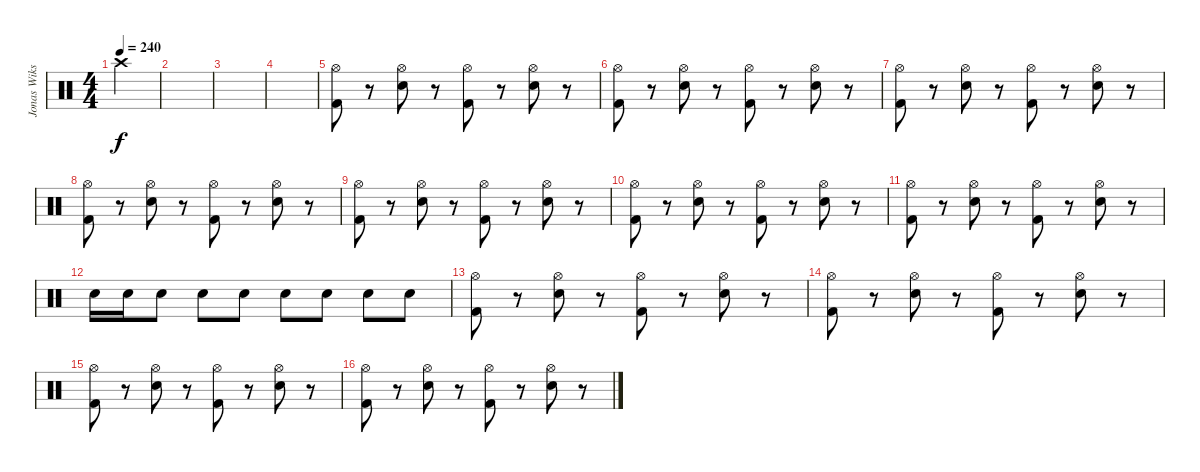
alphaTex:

\track ("Jonas Wikstrand" "Jonas Wiks") {instrument percussion}
\staff {score}
\articulation defaults
\ts (4 4)
\tempo 240
\clef neutral
\ks c "Crash high (hit)".4{dy f}
|
|
|
|
("Hi-Hat (open)" "Kick (hit) 2").8 r.8 ("Hi-Hat (open)" "Snare (hit) 2").8 r.8 ("Hi-Hat (open)" "Kick (hit) 2").8 r.8 ("Hi-Hat (open)" "Snare (hit) 2").8 r.8 |
("Hi-Hat (open)" "Kick (hit) 2").8 r.8 ("Hi-Hat (open)" "Snare (hit) 2").8 r.8 ("Hi-Hat (open)" "Kick (hit) 2").8 r.8 ("Hi-Hat (open)" "Snare (hit) 2").8 r.8 |
("Hi-Hat (open)" "Kick (hit) 2").8 r.8 ("Hi-Hat (open)" "Snare (hit) 2").8 r.8 ("Hi-Hat (open)" "Kick (hit) 2").8 r.8 ("Hi-Hat (open)" "Snare (hit) 2").8 r.8 |
("Hi-Hat (open)" "Kick (hit) 2").8 r.8 ("Hi-Hat (open)" "Snare (hit) 2").8 r.8 ("Hi-Hat (open)" "Kick (hit) 2").8 r.8 ("Hi-Hat (open)" "Snare (hit) 2").8 r.8 |
("Hi-Hat (open)" "Kick (hit) 2").8 r.8 ("Hi-Hat (open)" "Snare (hit) 2").8 r.8 ("Hi-Hat (open)" "Kick (hit) 2").8 r.8 ("Hi-Hat (open)" "Snare (hit) 2").8 r.8 |
("Hi-Hat (open)" "Kick (hit) 2").8 r.8 ("Hi-Hat (open)" "Snare (hit) 2").8 r.8 ("Hi-Hat (open)" "Kick (hit) 2").8 r.8 ("Hi-Hat (open)" "Snare (hit) 2").8 r.8 |
("Hi-Hat (open)" "Kick (hit) 2").8 r.8 ("Hi-Hat (open)" "Snare (hit) 2").8 r.8 ("Hi-Hat (open)" "Kick (hit) 2").8 r.8 ("Hi-Hat (open)" "Snare (hit) 2").8 r.8 |
"Snare (hit) 2".16 "Snare (hit) 2".16 "Snare (hit) 2".8 "Snare (hit) 2".8 "Snare (hit) 2".8 "Snare (hit) 2".8 "Snare (hit) 2".8 "Snare (hit) 2".8 "Snare (hit) 2".8 |
("Hi-Hat (open)" "Kick (hit) 2").8 r.8 ("Hi-Hat (open)" "Snare (hit) 2").8 r.8 ("Hi-Hat (open)" "Kick (hit) 2").8 r.8 ("Hi-Hat (open)" "Snare (hit) 2").8 r.8 |
("Hi-Hat (open)" "Kick (hit) 2").8 r.8 ("Hi-Hat (open)" "Snare (hit) 2").8 r.8 ("Hi-Hat (open)" "Kick (hit) 2").8 r.8 ("Hi-Hat (open)" "Snare (hit) 2").8 r.8 |
("Hi-Hat (open)" "Kick (hit) 2").8 r.8 ("Hi-Hat (open)" "Snare (hit) 2").8 r.8 ("Hi-Hat (open)" "Kick (hit) 2").8 r.8 ("Hi-Hat (open)" "Snare (hit) 2").8 r.8 |
("Hi-Hat (open)" "Kick (hit) 2").8 r.8 ("Hi-Hat (open)" "Snare (hit) 2").8 r.8 ("Hi-Hat (open)" "Kick (hit) 2").8 r.8 ("Hi-Hat (open)" "Snare (hit) 2").8 r.8
